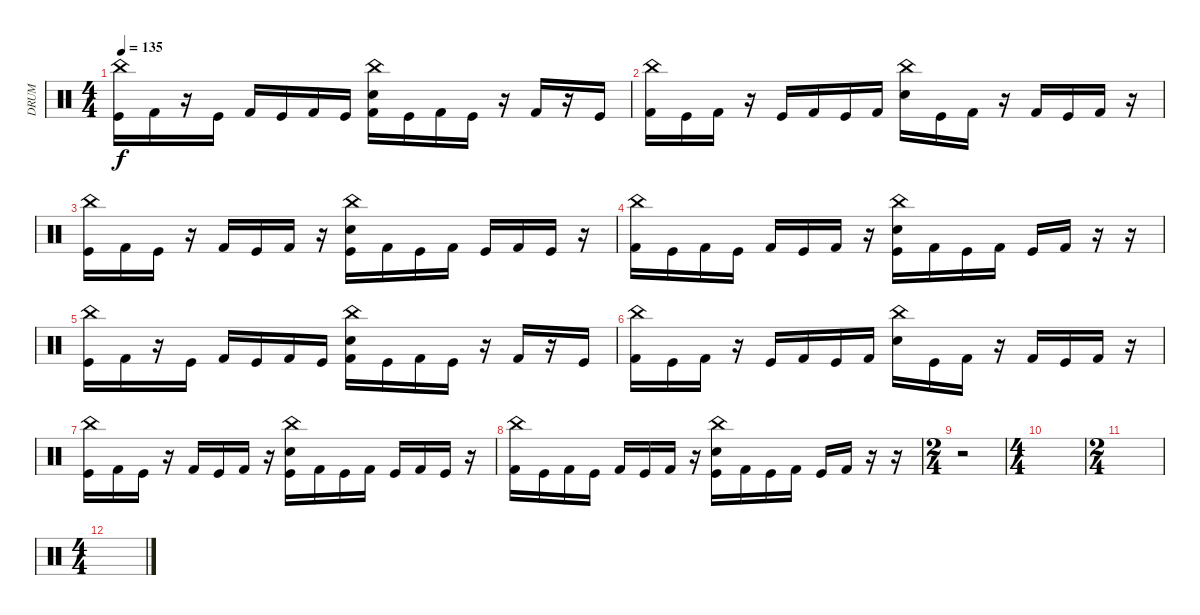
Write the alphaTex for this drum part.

\track ("DRUM" "DRUM") {instrument percussion}
\staff {score}
\articulation defaults
\ts (4 4)
\tempo 135
\clef neutral
\ks c
("China (hit)" "Kick (hit)").16{dy f} "Kick (hit) 2".16 r.16 "Kick (hit)".16 "Kick (hit) 2".16 "Kick (hit)".16 "Kick (hit) 2".16 "Kick (hit)".16 ("China (hit)" "Electric Snare (hit)" "Kick (hit) 2").16 "Kick (hit)".16 "Kick (hit) 2".16 "Kick (hit)".16 r.16 "Kick (hit) 2".16 r.16 "Kick (hit)".16 |
("China (hit)" "Kick (hit) 2").16 "Kick (hit)".16 "Kick (hit) 2".16 r.16 "Kick (hit)".16 "Kick (hit) 2".16 "Kick (hit)".16 "Kick (hit) 2".16 ("China (hit)" "Electric Snare (hit)").16 "Kick (hit)".16 "Kick (hit) 2".16 r.16 "Kick (hit) 2".16 "Kick (hit)".16 "Kick (hit) 2".16 r.16 |
("China (hit)" "Kick (hit)").16 "Kick (hit) 2".16 "Kick (hit)".16 r.16 "Kick (hit) 2".16 "Kick (hit)".16 "Kick (hit) 2".16 r.16 ("China (hit)" "Electric Snare (hit)" "Kick (hit)").16 "Kick (hit) 2".16 "Kick (hit)".16 "Kick (hit) 2".16 "Kick (hit)".16 "Kick (hit) 2".16 "Kick (hit)".16 r.16 |
("China (hit)" "Kick (hit) 2").16 "Kick (hit)".16 "Kick (hit) 2".16 "Kick (hit)".16 "Kick (hit) 2".16 "Kick (hit)".16 "Kick (hit) 2".16 r.16 ("China (hit)" "Electric Snare (hit)" "Kick (hit)").16 "Kick (hit) 2".16 "Kick (hit)".16 "Kick (hit) 2".16 "Kick (hit)".16 "Kick (hit) 2".16 r.16 r.16 |
("China (hit)" "Kick (hit)").16 "Kick (hit) 2".16 r.16 "Kick (hit)".16 "Kick (hit) 2".16 "Kick (hit)".16 "Kick (hit) 2".16 "Kick (hit)".16 ("China (hit)" "Electric Snare (hit)" "Kick (hit) 2").16 "Kick (hit)".16 "Kick (hit) 2".16 "Kick (hit)".16 r.16 "Kick (hit) 2".16 r.16 "Kick (hit)".16 |
("China (hit)" "Kick (hit) 2").16 "Kick (hit)".16 "Kick (hit) 2".16 r.16 "Kick (hit)".16 "Kick (hit) 2".16 "Kick (hit)".16 "Kick (hit) 2".16 ("China (hit)" "Electric Snare (hit)").16 "Kick (hit)".16 "Kick (hit) 2".16 r.16 "Kick (hit) 2".16 "Kick (hit)".16 "Kick (hit) 2".16 r.16 |
("China (hit)" "Kick (hit)").16 "Kick (hit) 2".16 "Kick (hit)".16 r.16 "Kick (hit) 2".16 "Kick (hit)".16 "Kick (hit) 2".16 r.16 ("China (hit)" "Electric Snare (hit)" "Kick (hit)").16 "Kick (hit) 2".16 "Kick (hit)".16 "Kick (hit) 2".16 "Kick (hit)".16 "Kick (hit) 2".16 "Kick (hit)".16 r.16 |
("China (hit)" "Kick (hit) 2").16 "Kick (hit)".16 "Kick (hit) 2".16 "Kick (hit)".16 "Kick (hit) 2".16 "Kick (hit)".16 "Kick (hit) 2".16 r.16 ("China (hit)" "Electric Snare (hit)" "Kick (hit)").16 "Kick (hit) 2".16 "Kick (hit)".16 "Kick (hit) 2".16 "Kick (hit)".16 "Kick (hit) 2".16 r.16 r.16 |
\ts (2 4)
r.2 |
\ts (4 4)
|
\ts (2 4)
|
\ts (4 4)
